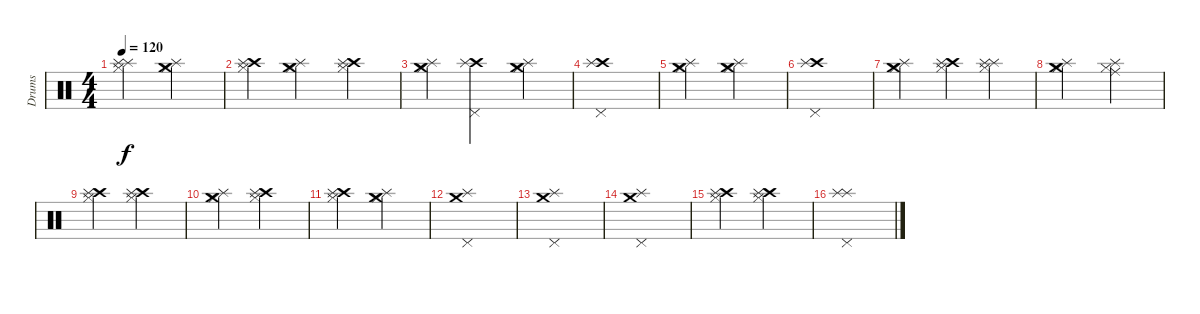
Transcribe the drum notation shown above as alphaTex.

\track ("Drums" "Drums") {instrument percussion}
\staff {score}
\articulation defaults
\ts (4 4)
\tempo 120
\clef neutral
\ks c
("Splash (hit)" "Splash (hit)" "Hi-Hat (closed)").2{dy f} ("Crash medium (hit)" "Splash (hit)" "Hi-Hat (closed)").2 |
("Crash high (hit)" "Splash (hit)" "Hi-Hat (closed)").4 ("Crash medium (hit)" "Splash (hit)" "Hi-Hat (closed)").2 ("Crash high (hit)" "Splash (hit)" "Hi-Hat (closed)").4 |
("Crash medium (hit)" "Splash (hit)" "Hi-Hat (closed)").4 ("Crash high (hit)" "Splash (hit)" "Pedal Hi-Hat (hit)").2 ("Crash medium (hit)" "Splash (hit)" "Hi-Hat (closed)").4 |
("Crash high (hit)" "Splash (hit)" "Pedal Hi-Hat (hit)").1 |
("Crash medium (hit)" "Splash (hit)" "Hi-Hat (closed)").2 ("Crash medium (hit)" "Splash (hit)" "Hi-Hat (closed)").2 |
("Crash high (hit)" "Splash (hit)" "Pedal Hi-Hat (hit)").1 |
("Crash medium (hit)" "Splash (hit)" "Hi-Hat (closed)").2 ("Crash high (hit)" "Splash (hit)" "Hi-Hat (closed)").4 ("Splash (hit)" "Splash (hit)" "Hi-Hat (closed)").4 |
("Crash medium (hit)" "Splash (hit)" "Hi-Hat (closed)").2 ("Ride (middle)" "Splash (hit)" "Hi-Hat (closed)").2 |
("Crash high (hit)" "Splash (hit)" "Hi-Hat (closed)").2 ("Crash high (hit)" "Splash (hit)" "Hi-Hat (closed)").2 |
("Crash medium (hit)" "Splash (hit)" "Hi-Hat (closed)").2 ("Crash high (hit)" "Splash (hit)" "Hi-Hat (closed)").2 |
("Crash high (hit)" "Splash (hit)" "Hi-Hat (closed)").2 ("Crash medium (hit)" "Splash (hit)" "Hi-Hat (closed)").2 |
("Crash medium (hit)" "Splash (hit)" "Pedal Hi-Hat (hit)").1 |
("Crash medium (hit)" "Splash (hit)" "Pedal Hi-Hat (hit)").1 |
("Crash medium (hit)" "Splash (hit)" "Pedal Hi-Hat (hit)").1 |
("Crash high (hit)" "Splash (hit)" "Hi-Hat (closed)").2 ("Crash high (hit)" "Splash (hit)" "Hi-Hat (closed)").2 |
("Splash (hit)" "Splash (hit)" "Pedal Hi-Hat (hit)").1
